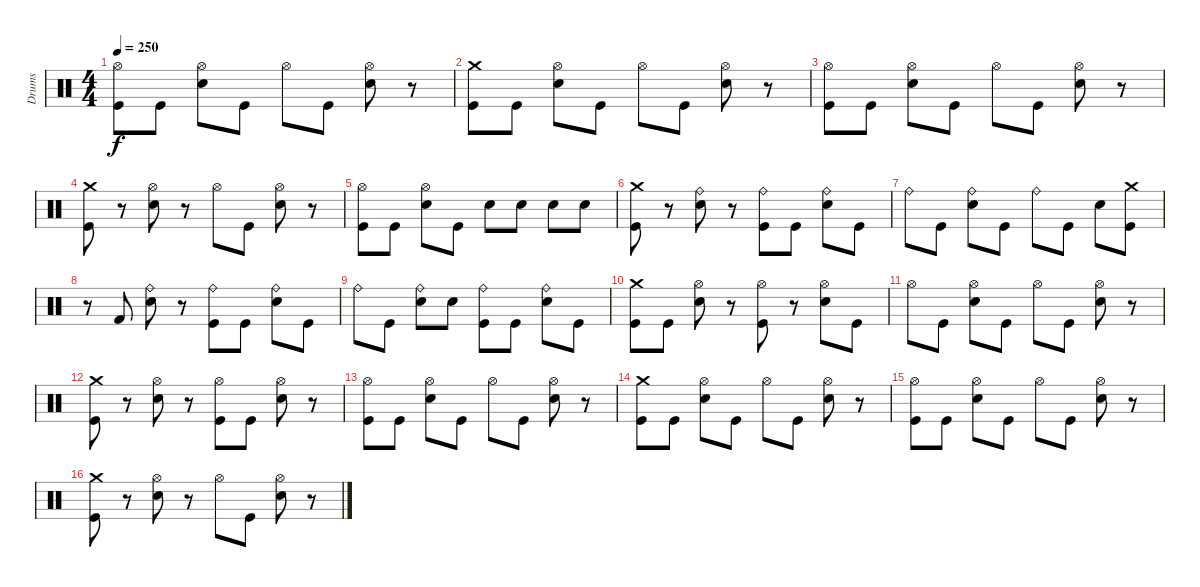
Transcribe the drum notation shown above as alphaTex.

\track ("Drums" "Drums") {instrument percussion}
\staff {score}
\articulation defaults
\ts (4 4)
\tempo 250
\clef neutral
\ks c
("Hi-Hat (open)" "Kick (hit)").8{dy f} "Kick (hit)".8 ("Hi-Hat (open)" "Electric Snare (hit)").8 "Kick (hit)".8 "Hi-Hat (open)".8 "Kick (hit)".8 ("Hi-Hat (open)" "Electric Snare (hit)").8 r.8 |
("Crash medium (hit)" "Kick (hit)").8 "Kick (hit)".8 ("Hi-Hat (open)" "Electric Snare (hit)").8 "Kick (hit)".8 "Hi-Hat (open)".8 "Kick (hit)".8 ("Hi-Hat (open)" "Electric Snare (hit)").8 r.8 |
("Hi-Hat (open)" "Kick (hit)").8 "Kick (hit)".8 ("Hi-Hat (open)" "Electric Snare (hit)").8 "Kick (hit)".8 "Hi-Hat (open)".8 "Kick (hit)".8 ("Hi-Hat (open)" "Electric Snare (hit)").8 r.8 |
("Crash medium (hit)" "Kick (hit)").8 r.8 ("Hi-Hat (open)" "Electric Snare (hit)").8 r.8 "Hi-Hat (open)".8 "Kick (hit)".8 ("Hi-Hat (open)" "Electric Snare (hit)").8 r.8 |
("Hi-Hat (open)" "Kick (hit)").8 "Kick (hit)".8 ("Hi-Hat (open)" "Electric Snare (hit)").8 "Kick (hit)".8 "Electric Snare (hit)".8 "Electric Snare (hit)".8 "Electric Snare (hit)".8 "Electric Snare (hit)".8 |
("Crash medium (hit)" "Kick (hit)").8 r.8 ("Ride (bell)" "Electric Snare (hit)").8 r.8 ("Ride (bell)" "Kick (hit)").8 "Kick (hit)".8 ("Ride (bell)" "Electric Snare (hit)").8 "Kick (hit)".8 |
"Ride (bell)".8 "Kick (hit)".8 ("Ride (bell)" "Electric Snare (hit)").8 "Kick (hit)".8 "Ride (bell)".8 "Kick (hit)".8 "Electric Snare (hit)".8 ("Crash medium (hit)" "Kick (hit)").8 |
r.8 "Kick (hit) 2".8 ("Ride (bell)" "Electric Snare (hit)").8 r.8 ("Ride (bell)" "Kick (hit)").8 "Kick (hit)".8 ("Ride (bell)" "Electric Snare (hit)").8 "Kick (hit)".8 |
"Ride (bell)".8 "Kick (hit)".8 ("Ride (bell)" "Electric Snare (hit)").8 "Electric Snare (hit)".8 ("Ride (bell)" "Kick (hit)").8 "Kick (hit)".8 ("Ride (bell)" "Electric Snare (hit)").8 "Kick (hit)".8 |
("Crash medium (hit)" "Kick (hit)").8 "Kick (hit)".8 ("Hi-Hat (open)" "Electric Snare (hit)").8 r.8 ("Hi-Hat (open)" "Kick (hit)").8 r.8 ("Hi-Hat (open)" "Electric Snare (hit)").8 "Kick (hit)".8 |
"Hi-Hat (open)".8 "Kick (hit)".8 ("Hi-Hat (open)" "Electric Snare (hit)").8 "Kick (hit)".8 "Hi-Hat (open)".8 "Kick (hit)".8 ("Hi-Hat (open)" "Electric Snare (hit)").8 r.8 |
("Crash medium (hit)" "Kick (hit)").8 r.8 ("Hi-Hat (open)" "Electric Snare (hit)").8 r.8 ("Hi-Hat (open)" "Kick (hit)").8 "Kick (hit)".8 ("Hi-Hat (open)" "Electric Snare (hit)").8 r.8 |
("Hi-Hat (open)" "Kick (hit)").8 "Kick (hit)".8 ("Hi-Hat (open)" "Electric Snare (hit)").8 "Kick (hit)".8 "Hi-Hat (open)".8 "Kick (hit)".8 ("Hi-Hat (open)" "Electric Snare (hit)").8 r.8 |
("Crash medium (hit)" "Kick (hit)").8 "Kick (hit)".8 ("Hi-Hat (open)" "Electric Snare (hit)").8 "Kick (hit)".8 "Hi-Hat (open)".8 "Kick (hit)".8 ("Hi-Hat (open)" "Electric Snare (hit)").8 r.8 |
("Hi-Hat (open)" "Kick (hit)").8 "Kick (hit)".8 ("Hi-Hat (open)" "Electric Snare (hit)").8 "Kick (hit)".8 "Hi-Hat (open)".8 "Kick (hit)".8 ("Hi-Hat (open)" "Electric Snare (hit)").8 r.8 |
("Crash medium (hit)" "Kick (hit)").8 r.8 ("Hi-Hat (open)" "Electric Snare (hit)").8 r.8 "Hi-Hat (open)".8 "Kick (hit)".8 ("Hi-Hat (open)" "Electric Snare (hit)").8 r.8
